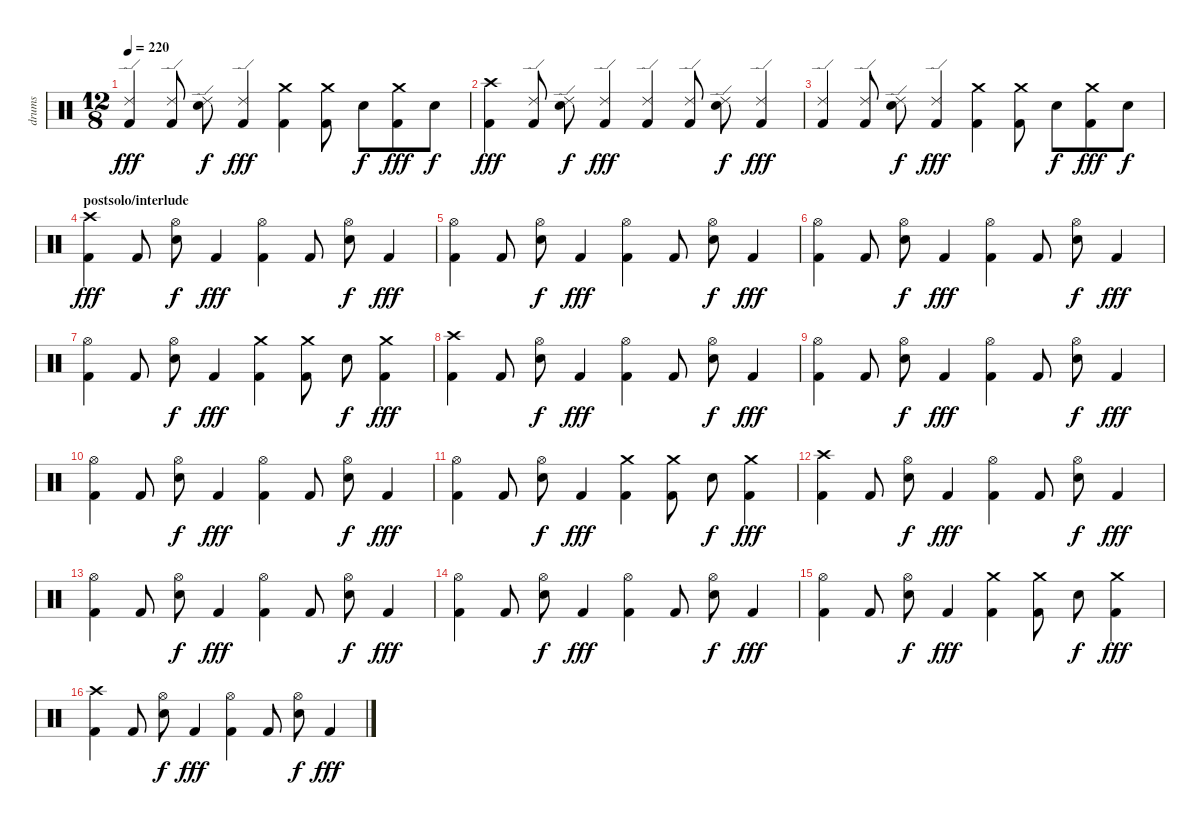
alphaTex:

\track ("drums" "drums") {instrument percussion}
\staff {score}
\articulation defaults
\ts (12 8)
\tempo 220
\clef neutral
\ks c
("Ride (edge) 2" "Kick (hit) 2").4{dy fff} ("Ride (edge) 2" "Kick (hit) 2").8 ("Ride (edge) 2" "Snare (hit) 2").8{dy f} ("Ride (edge) 2" "Kick (hit) 2").4{dy fff} ("Crash medium (hit)" "Kick (hit) 2").4 ("Crash medium (hit)" "Kick (hit) 2").8 "Snare (hit) 2".8{dy f} ("Crash medium (hit)" "Kick (hit) 2").8{dy fff} "Snare (hit) 2".8{dy f} |
("Crash high (hit)" "Kick (hit) 2").4{dy fff} ("Ride (edge) 2" "Kick (hit) 2").8 ("Ride (edge) 2" "Snare (hit) 2").8{dy f} ("Ride (edge) 2" "Kick (hit) 2").4{dy fff} ("Ride (edge) 2" "Kick (hit) 2").4 ("Ride (edge) 2" "Kick (hit) 2").8 ("Ride (edge) 2" "Snare (hit) 2").8{dy f} ("Ride (edge) 2" "Kick (hit) 2").4{dy fff} |
("Ride (edge) 2" "Kick (hit) 2").4 ("Ride (edge) 2" "Kick (hit) 2").8 ("Ride (edge) 2" "Snare (hit) 2").8{dy f} ("Ride (edge) 2" "Kick (hit) 2").4{dy fff} ("Crash medium (hit)" "Kick (hit) 2").4 ("Crash medium (hit)" "Kick (hit) 2").8 "Snare (hit) 2".8{dy f} ("Crash medium (hit)" "Kick (hit) 2").8{dy fff} "Snare (hit) 2".8{dy f} |
\section ("" "postsolo/interlude")
("Crash high (hit)" "Kick (hit) 2").4{dy fff} "Kick (hit) 2".8 ("Hi-Hat (open)" "Snare (hit) 2").8{dy f} "Kick (hit) 2".4{dy fff} ("Hi-Hat (open)" "Kick (hit) 2").4 "Kick (hit) 2".8 ("Hi-Hat (open)" "Snare (hit) 2").8{dy f} "Kick (hit) 2".4{dy fff} |
("Hi-Hat (open)" "Kick (hit) 2").4 "Kick (hit) 2".8 ("Hi-Hat (open)" "Snare (hit) 2").8{dy f} "Kick (hit) 2".4{dy fff} ("Hi-Hat (open)" "Kick (hit) 2").4 "Kick (hit) 2".8 ("Hi-Hat (open)" "Snare (hit) 2").8{dy f} "Kick (hit) 2".4{dy fff} |
("Hi-Hat (open)" "Kick (hit) 2").4 "Kick (hit) 2".8 ("Hi-Hat (open)" "Snare (hit) 2").8{dy f} "Kick (hit) 2".4{dy fff} ("Hi-Hat (open)" "Kick (hit) 2").4 "Kick (hit) 2".8 ("Hi-Hat (open)" "Snare (hit) 2").8{dy f} "Kick (hit) 2".4{dy fff} |
("Hi-Hat (open)" "Kick (hit) 2").4 "Kick (hit) 2".8 ("Hi-Hat (open)" "Snare (hit) 2").8{dy f} "Kick (hit) 2".4{dy fff} ("Crash medium (hit)" "Kick (hit) 2").4 ("Crash medium (hit)" "Kick (hit) 2").8 "Snare (hit) 2".8{dy f} ("Crash medium (hit)" "Kick (hit) 2").4{dy fff} |
("Crash high (hit)" "Kick (hit) 2").4 "Kick (hit) 2".8 ("Hi-Hat (open)" "Snare (hit) 2").8{dy f} "Kick (hit) 2".4{dy fff} ("Hi-Hat (open)" "Kick (hit) 2").4 "Kick (hit) 2".8 ("Hi-Hat (open)" "Snare (hit) 2").8{dy f} "Kick (hit) 2".4{dy fff} |
("Hi-Hat (open)" "Kick (hit) 2").4 "Kick (hit) 2".8 ("Hi-Hat (open)" "Snare (hit) 2").8{dy f} "Kick (hit) 2".4{dy fff} ("Hi-Hat (open)" "Kick (hit) 2").4 "Kick (hit) 2".8 ("Hi-Hat (open)" "Snare (hit) 2").8{dy f} "Kick (hit) 2".4{dy fff} |
("Hi-Hat (open)" "Kick (hit) 2").4 "Kick (hit) 2".8 ("Hi-Hat (open)" "Snare (hit) 2").8{dy f} "Kick (hit) 2".4{dy fff} ("Hi-Hat (open)" "Kick (hit) 2").4 "Kick (hit) 2".8 ("Hi-Hat (open)" "Snare (hit) 2").8{dy f} "Kick (hit) 2".4{dy fff} |
("Hi-Hat (open)" "Kick (hit) 2").4 "Kick (hit) 2".8 ("Hi-Hat (open)" "Snare (hit) 2").8{dy f} "Kick (hit) 2".4{dy fff} ("Crash medium (hit)" "Kick (hit) 2").4 ("Crash medium (hit)" "Kick (hit) 2").8 "Snare (hit) 2".8{dy f} ("Crash medium (hit)" "Kick (hit) 2").4{dy fff} |
("Crash high (hit)" "Kick (hit) 2").4 "Kick (hit) 2".8 ("Hi-Hat (open)" "Snare (hit) 2").8{dy f} "Kick (hit) 2".4{dy fff} ("Hi-Hat (open)" "Kick (hit) 2").4 "Kick (hit) 2".8 ("Hi-Hat (open)" "Snare (hit) 2").8{dy f} "Kick (hit) 2".4{dy fff} |
("Hi-Hat (open)" "Kick (hit) 2").4 "Kick (hit) 2".8 ("Hi-Hat (open)" "Snare (hit) 2").8{dy f} "Kick (hit) 2".4{dy fff} ("Hi-Hat (open)" "Kick (hit) 2").4 "Kick (hit) 2".8 ("Hi-Hat (open)" "Snare (hit) 2").8{dy f} "Kick (hit) 2".4{dy fff} |
("Hi-Hat (open)" "Kick (hit) 2").4 "Kick (hit) 2".8 ("Hi-Hat (open)" "Snare (hit) 2").8{dy f} "Kick (hit) 2".4{dy fff} ("Hi-Hat (open)" "Kick (hit) 2").4 "Kick (hit) 2".8 ("Hi-Hat (open)" "Snare (hit) 2").8{dy f} "Kick (hit) 2".4{dy fff} |
("Hi-Hat (open)" "Kick (hit) 2").4 "Kick (hit) 2".8 ("Hi-Hat (open)" "Snare (hit) 2").8{dy f} "Kick (hit) 2".4{dy fff} ("Crash medium (hit)" "Kick (hit) 2").4 ("Crash medium (hit)" "Kick (hit) 2").8 "Snare (hit) 2".8{dy f} ("Crash medium (hit)" "Kick (hit) 2").4{dy fff} |
("Crash high (hit)" "Kick (hit) 2").4 "Kick (hit) 2".8 ("Hi-Hat (open)" "Snare (hit) 2").8{dy f} "Kick (hit) 2".4{dy fff} ("Hi-Hat (open)" "Kick (hit) 2").4 "Kick (hit) 2".8 ("Hi-Hat (open)" "Snare (hit) 2").8{dy f} "Kick (hit) 2".4{dy fff}
